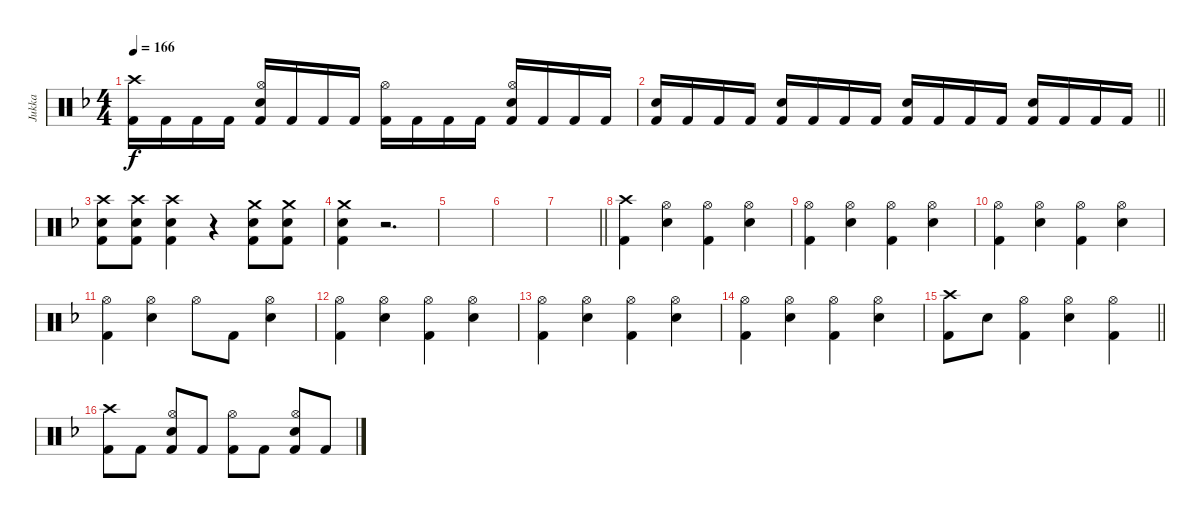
\track ("Jukka" "Jukka") {instrument percussion}
\staff {score}
\articulation defaults
\ts (4 4)
\tempo 166
\clef neutral
\ks f
("Crash high (hit)" "Kick (hit) 2").16{dy f} "Kick (hit) 2".16 "Kick (hit) 2".16 "Kick (hit) 2".16 ("Hi-Hat (open)" "Kick (hit) 2" "Electric Snare (hit)").16 "Kick (hit) 2".16 "Kick (hit) 2".16 "Kick (hit) 2".16 ("Hi-Hat (open)" "Kick (hit) 2").16 "Kick (hit) 2".16 "Kick (hit) 2".16 "Kick (hit) 2".16 ("Hi-Hat (open)" "Kick (hit) 2" "Electric Snare (hit)").16 "Kick (hit) 2".16 "Kick (hit) 2".16 "Kick (hit) 2".16 |
\barLineRight lightlight
("Kick (hit) 2" "Electric Snare (hit)").16 "Kick (hit) 2".16 "Kick (hit) 2".16 "Kick (hit) 2".16 ("Kick (hit) 2" "Electric Snare (hit)").16 "Kick (hit) 2".16 "Kick (hit) 2".16 "Kick (hit) 2".16 ("Kick (hit) 2" "Electric Snare (hit)").16 "Kick (hit) 2".16 "Kick (hit) 2".16 "Kick (hit) 2".16 ("Kick (hit) 2" "Electric Snare (hit)").16 "Kick (hit) 2".16 "Kick (hit) 2".16 "Kick (hit) 2".16 |
\section ("" "")
("Crash high (hit)" "Kick (hit) 2" "Electric Snare (hit)").8 ("Crash high (hit)" "Kick (hit) 2" "Electric Snare (hit)").8 ("Crash high (hit)" "Kick (hit) 2" "Electric Snare (hit)").4 r.4 ("Crash medium (hit)" "Kick (hit) 2" "Electric Snare (hit)").8 ("Crash medium (hit)" "Kick (hit) 2" "Electric Snare (hit)").8 |
("Crash medium (hit)" "Kick (hit) 2" "Electric Snare (hit)").4 r.2{d} |
|
|
\barLineRight lightlight
|
\section ("" "")
("Crash high (hit)" "Kick (hit) 2").4 ("Hi-Hat (open)" "Electric Snare (hit)").4 ("Hi-Hat (open)" "Kick (hit) 2").4 ("Hi-Hat (open)" "Electric Snare (hit)").4 |
("Hi-Hat (open)" "Kick (hit) 2").4 ("Hi-Hat (open)" "Electric Snare (hit)").4 ("Hi-Hat (open)" "Kick (hit) 2").4 ("Hi-Hat (open)" "Electric Snare (hit)").4 |
("Hi-Hat (open)" "Kick (hit) 2").4 ("Hi-Hat (open)" "Electric Snare (hit)").4 ("Hi-Hat (open)" "Kick (hit) 2").4 ("Hi-Hat (open)" "Electric Snare (hit)").4 |
("Hi-Hat (open)" "Kick (hit) 2").4 ("Hi-Hat (open)" "Electric Snare (hit)").4 "Hi-Hat (open)".8 "Kick (hit) 2".8 ("Hi-Hat (open)" "Electric Snare (hit)").4 |
("Hi-Hat (open)" "Kick (hit) 2").4 ("Hi-Hat (open)" "Electric Snare (hit)").4 ("Hi-Hat (open)" "Kick (hit) 2").4 ("Hi-Hat (open)" "Electric Snare (hit)").4 |
("Hi-Hat (open)" "Kick (hit) 2").4 ("Hi-Hat (open)" "Electric Snare (hit)").4 ("Hi-Hat (open)" "Kick (hit) 2").4 ("Hi-Hat (open)" "Electric Snare (hit)").4 |
("Hi-Hat (open)" "Kick (hit) 2").4 ("Hi-Hat (open)" "Electric Snare (hit)").4 ("Hi-Hat (open)" "Kick (hit) 2").4 ("Hi-Hat (open)" "Electric Snare (hit)").4 |
\barLineRight lightlight
("Crash high (hit)" "Kick (hit) 2").8 "Electric Snare (hit)".8 ("Hi-Hat (open)" "Kick (hit) 2").4 ("Hi-Hat (open)" "Electric Snare (hit)").4 ("Hi-Hat (open)" "Kick (hit) 2").4 |
\section ("" "")
("Crash high (hit)" "Kick (hit) 2").8 "Kick (hit) 2".8 ("Hi-Hat (open)" "Kick (hit) 2" "Electric Snare (hit)").8 "Kick (hit) 2".8 ("Hi-Hat (open)" "Kick (hit) 2").8 "Kick (hit) 2".8 ("Hi-Hat (open)" "Kick (hit) 2" "Electric Snare (hit)").8 "Kick (hit) 2".8
